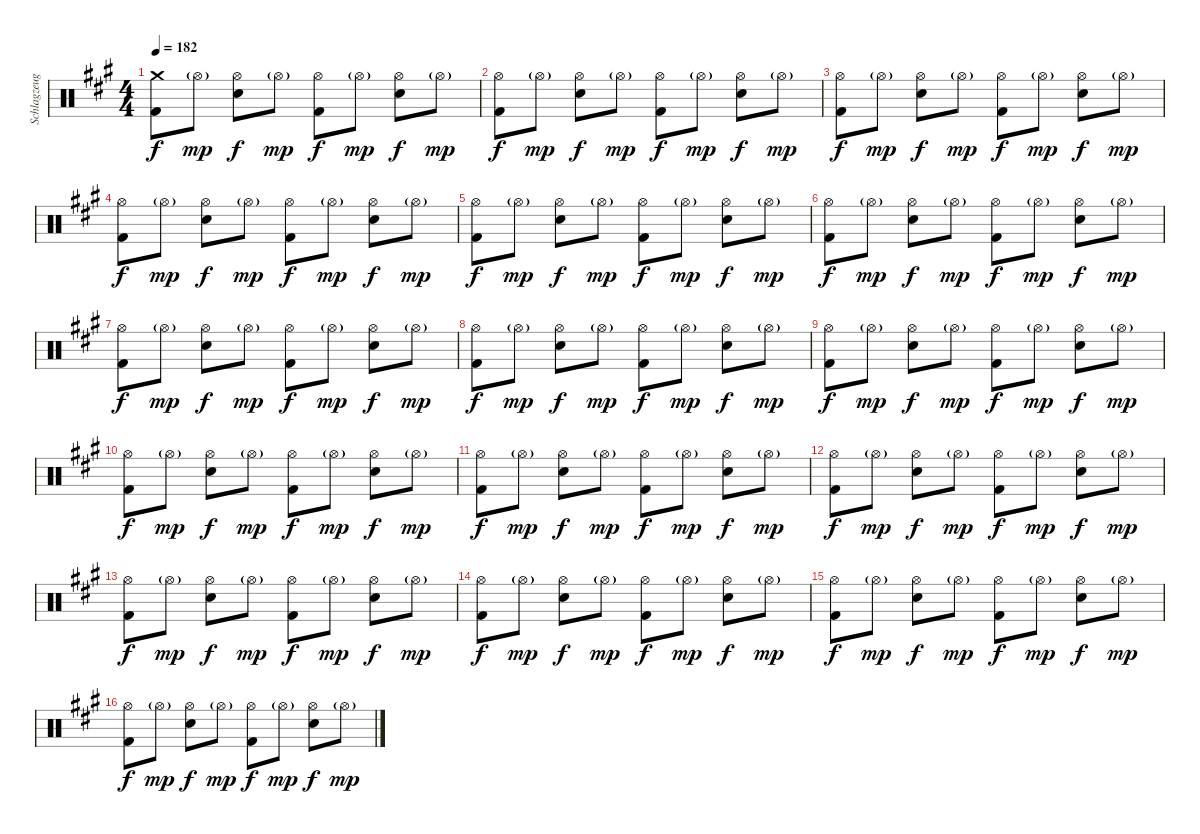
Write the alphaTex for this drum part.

\track ("Schlagzeug" "Schlagzeug") {instrument percussion}
\staff {score}
\articulation defaults
\ts (4 4)
\tempo 182
\clef neutral
\ks a
("Crash medium (hit)" "Kick (hit) 2").8{dy f} "Hi-Hat (open)"{g}.8{dy mp} ("Hi-Hat (open)" "Snare (hit) 2").8{dy f} "Hi-Hat (open)"{g}.8{dy mp} ("Hi-Hat (open)" "Kick (hit) 2").8{dy f} "Hi-Hat (open)"{g}.8{dy mp} ("Hi-Hat (open)" "Snare (hit) 2").8{dy f} "Hi-Hat (open)"{g}.8{dy mp} |
("Hi-Hat (open)" "Kick (hit) 2").8{dy f} "Hi-Hat (open)"{g}.8{dy mp} ("Hi-Hat (open)" "Snare (hit) 2").8{dy f} "Hi-Hat (open)"{g}.8{dy mp} ("Hi-Hat (open)" "Kick (hit) 2").8{dy f} "Hi-Hat (open)"{g}.8{dy mp} ("Hi-Hat (open)" "Snare (hit) 2").8{dy f} "Hi-Hat (open)"{g}.8{dy mp} |
("Hi-Hat (open)" "Kick (hit) 2").8{dy f} "Hi-Hat (open)"{g}.8{dy mp} ("Hi-Hat (open)" "Snare (hit) 2").8{dy f} "Hi-Hat (open)"{g}.8{dy mp} ("Hi-Hat (open)" "Kick (hit) 2").8{dy f} "Hi-Hat (open)"{g}.8{dy mp} ("Hi-Hat (open)" "Snare (hit) 2").8{dy f} "Hi-Hat (open)"{g}.8{dy mp} |
("Hi-Hat (open)" "Kick (hit) 2").8{dy f} "Hi-Hat (open)"{g}.8{dy mp} ("Hi-Hat (open)" "Snare (hit) 2").8{dy f} "Hi-Hat (open)"{g}.8{dy mp} ("Hi-Hat (open)" "Kick (hit) 2").8{dy f} "Hi-Hat (open)"{g}.8{dy mp} ("Hi-Hat (open)" "Snare (hit) 2").8{dy f} "Hi-Hat (open)"{g}.8{dy mp} |
("Hi-Hat (open)" "Kick (hit) 2").8{dy f} "Hi-Hat (open)"{g}.8{dy mp} ("Hi-Hat (open)" "Snare (hit) 2").8{dy f} "Hi-Hat (open)"{g}.8{dy mp} ("Hi-Hat (open)" "Kick (hit) 2").8{dy f} "Hi-Hat (open)"{g}.8{dy mp} ("Hi-Hat (open)" "Snare (hit) 2").8{dy f} "Hi-Hat (open)"{g}.8{dy mp} |
("Hi-Hat (open)" "Kick (hit) 2").8{dy f} "Hi-Hat (open)"{g}.8{dy mp} ("Hi-Hat (open)" "Snare (hit) 2").8{dy f} "Hi-Hat (open)"{g}.8{dy mp} ("Hi-Hat (open)" "Kick (hit) 2").8{dy f} "Hi-Hat (open)"{g}.8{dy mp} ("Hi-Hat (open)" "Snare (hit) 2").8{dy f} "Hi-Hat (open)"{g}.8{dy mp} |
("Hi-Hat (open)" "Kick (hit) 2").8{dy f} "Hi-Hat (open)"{g}.8{dy mp} ("Hi-Hat (open)" "Snare (hit) 2").8{dy f} "Hi-Hat (open)"{g}.8{dy mp} ("Hi-Hat (open)" "Kick (hit) 2").8{dy f} "Hi-Hat (open)"{g}.8{dy mp} ("Hi-Hat (open)" "Snare (hit) 2").8{dy f} "Hi-Hat (open)"{g}.8{dy mp} |
("Hi-Hat (open)" "Kick (hit) 2").8{dy f} "Hi-Hat (open)"{g}.8{dy mp} ("Hi-Hat (open)" "Snare (hit) 2").8{dy f} "Hi-Hat (open)"{g}.8{dy mp} ("Hi-Hat (open)" "Kick (hit) 2").8{dy f} "Hi-Hat (open)"{g}.8{dy mp} ("Hi-Hat (open)" "Snare (hit) 2").8{dy f} "Hi-Hat (open)"{g}.8{dy mp} |
("Hi-Hat (open)" "Kick (hit) 2").8{dy f} "Hi-Hat (open)"{g}.8{dy mp} ("Hi-Hat (open)" "Snare (hit) 2").8{dy f} "Hi-Hat (open)"{g}.8{dy mp} ("Hi-Hat (open)" "Kick (hit) 2").8{dy f} "Hi-Hat (open)"{g}.8{dy mp} ("Hi-Hat (open)" "Snare (hit) 2").8{dy f} "Hi-Hat (open)"{g}.8{dy mp} |
("Hi-Hat (open)" "Kick (hit) 2").8{dy f} "Hi-Hat (open)"{g}.8{dy mp} ("Hi-Hat (open)" "Snare (hit) 2").8{dy f} "Hi-Hat (open)"{g}.8{dy mp} ("Hi-Hat (open)" "Kick (hit) 2").8{dy f} "Hi-Hat (open)"{g}.8{dy mp} ("Hi-Hat (open)" "Snare (hit) 2").8{dy f} "Hi-Hat (open)"{g}.8{dy mp} |
("Hi-Hat (open)" "Kick (hit) 2").8{dy f} "Hi-Hat (open)"{g}.8{dy mp} ("Hi-Hat (open)" "Snare (hit) 2").8{dy f} "Hi-Hat (open)"{g}.8{dy mp} ("Hi-Hat (open)" "Kick (hit) 2").8{dy f} "Hi-Hat (open)"{g}.8{dy mp} ("Hi-Hat (open)" "Snare (hit) 2").8{dy f} "Hi-Hat (open)"{g}.8{dy mp} |
("Hi-Hat (open)" "Kick (hit) 2").8{dy f} "Hi-Hat (open)"{g}.8{dy mp} ("Hi-Hat (open)" "Snare (hit) 2").8{dy f} "Hi-Hat (open)"{g}.8{dy mp} ("Hi-Hat (open)" "Kick (hit) 2").8{dy f} "Hi-Hat (open)"{g}.8{dy mp} ("Hi-Hat (open)" "Snare (hit) 2").8{dy f} "Hi-Hat (open)"{g}.8{dy mp} |
("Hi-Hat (open)" "Kick (hit) 2").8{dy f} "Hi-Hat (open)"{g}.8{dy mp} ("Hi-Hat (open)" "Snare (hit) 2").8{dy f} "Hi-Hat (open)"{g}.8{dy mp} ("Hi-Hat (open)" "Kick (hit) 2").8{dy f} "Hi-Hat (open)"{g}.8{dy mp} ("Hi-Hat (open)" "Snare (hit) 2").8{dy f} "Hi-Hat (open)"{g}.8{dy mp} |
("Hi-Hat (open)" "Kick (hit) 2").8{dy f} "Hi-Hat (open)"{g}.8{dy mp} ("Hi-Hat (open)" "Snare (hit) 2").8{dy f} "Hi-Hat (open)"{g}.8{dy mp} ("Hi-Hat (open)" "Kick (hit) 2").8{dy f} "Hi-Hat (open)"{g}.8{dy mp} ("Hi-Hat (open)" "Snare (hit) 2").8{dy f} "Hi-Hat (open)"{g}.8{dy mp} |
("Hi-Hat (open)" "Kick (hit) 2").8{dy f} "Hi-Hat (open)"{g}.8{dy mp} ("Hi-Hat (open)" "Snare (hit) 2").8{dy f} "Hi-Hat (open)"{g}.8{dy mp} ("Hi-Hat (open)" "Kick (hit) 2").8{dy f} "Hi-Hat (open)"{g}.8{dy mp} ("Hi-Hat (open)" "Snare (hit) 2").8{dy f} "Hi-Hat (open)"{g}.8{dy mp} |
("Hi-Hat (open)" "Kick (hit) 2").8{dy f} "Hi-Hat (open)"{g}.8{dy mp} ("Hi-Hat (open)" "Snare (hit) 2").8{dy f} "Hi-Hat (open)"{g}.8{dy mp} ("Hi-Hat (open)" "Kick (hit) 2").8{dy f} "Hi-Hat (open)"{g}.8{dy mp} ("Hi-Hat (open)" "Snare (hit) 2").8{dy f} "Hi-Hat (open)"{g}.8{dy mp}
